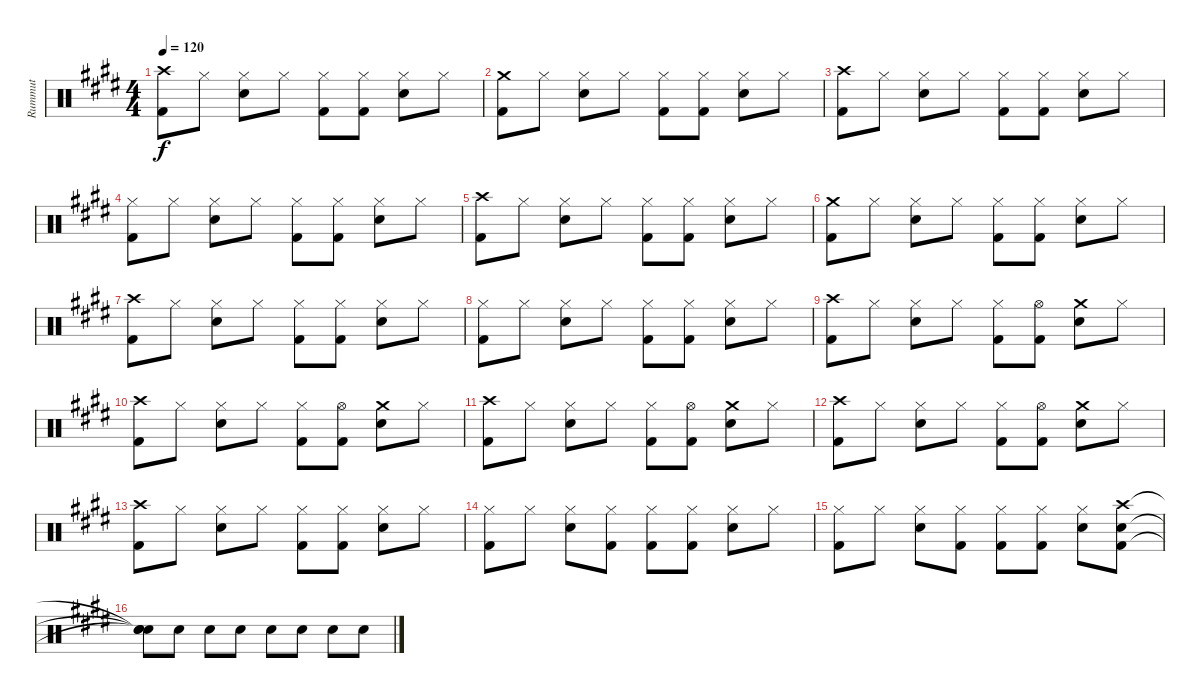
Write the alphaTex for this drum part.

\track ("Rummut" "Rummut") {instrument percussion}
\staff {score}
\articulation defaults
\ts (4 4)
\tempo 120
\clef neutral
\ks e
("Crash high (hit)" "Kick (hit) 2").8{dy f} "Hi-Hat (closed)".8 ("Hi-Hat (closed)" "Electric Snare (hit)").8 "Hi-Hat (closed)".8 ("Hi-Hat (closed)" "Kick (hit) 2").8 ("Hi-Hat (closed)" "Kick (hit) 2").8 ("Hi-Hat (closed)" "Electric Snare (hit)").8 "Hi-Hat (closed)".8 |
("Crash medium (hit)" "Kick (hit) 2").8 "Hi-Hat (closed)".8 ("Hi-Hat (closed)" "Electric Snare (hit)").8 "Hi-Hat (closed)".8 ("Hi-Hat (closed)" "Kick (hit) 2").8 ("Hi-Hat (closed)" "Kick (hit) 2").8 ("Hi-Hat (closed)" "Electric Snare (hit)").8 "Hi-Hat (closed)".8 |
("Crash high (hit)" "Kick (hit) 2").8 "Hi-Hat (closed)".8 ("Hi-Hat (closed)" "Electric Snare (hit)").8 "Hi-Hat (closed)".8 ("Hi-Hat (closed)" "Kick (hit) 2").8 ("Hi-Hat (closed)" "Kick (hit) 2").8 ("Hi-Hat (closed)" "Electric Snare (hit)").8 "Hi-Hat (closed)".8 |
("Hi-Hat (closed)" "Kick (hit) 2").8 "Hi-Hat (closed)".8 ("Hi-Hat (closed)" "Electric Snare (hit)").8 "Hi-Hat (closed)".8 ("Hi-Hat (closed)" "Kick (hit) 2").8 ("Hi-Hat (closed)" "Kick (hit) 2").8 ("Hi-Hat (closed)" "Electric Snare (hit)").8 "Hi-Hat (closed)".8 |
("Crash high (hit)" "Kick (hit) 2").8 "Hi-Hat (closed)".8 ("Hi-Hat (closed)" "Electric Snare (hit)").8 "Hi-Hat (closed)".8 ("Hi-Hat (closed)" "Kick (hit) 2").8 ("Hi-Hat (closed)" "Kick (hit) 2").8 ("Hi-Hat (closed)" "Electric Snare (hit)").8 "Hi-Hat (closed)".8 |
("Crash medium (hit)" "Kick (hit) 2").8 "Hi-Hat (closed)".8 ("Hi-Hat (closed)" "Electric Snare (hit)").8 "Hi-Hat (closed)".8 ("Hi-Hat (closed)" "Kick (hit) 2").8 ("Hi-Hat (closed)" "Kick (hit) 2").8 ("Hi-Hat (closed)" "Electric Snare (hit)").8 "Hi-Hat (closed)".8 |
("Crash high (hit)" "Kick (hit) 2").8 "Hi-Hat (closed)".8 ("Hi-Hat (closed)" "Electric Snare (hit)").8 "Hi-Hat (closed)".8 ("Hi-Hat (closed)" "Kick (hit) 2").8 ("Hi-Hat (closed)" "Kick (hit) 2").8 ("Hi-Hat (closed)" "Electric Snare (hit)").8 "Hi-Hat (closed)".8 |
("Hi-Hat (closed)" "Kick (hit) 2").8 "Hi-Hat (closed)".8 ("Hi-Hat (closed)" "Electric Snare (hit)").8 "Hi-Hat (closed)".8 ("Hi-Hat (closed)" "Kick (hit) 2").8 ("Hi-Hat (closed)" "Kick (hit) 2").8 ("Hi-Hat (closed)" "Electric Snare (hit)").8 "Hi-Hat (closed)".8 |
("Crash high (hit)" "Kick (hit) 2").8 "Hi-Hat (closed)".8 ("Hi-Hat (closed)" "Electric Snare (hit)").8 "Hi-Hat (closed)".8 ("Hi-Hat (closed)" "Kick (hit) 2").8 ("Hi-Hat (open)" "Kick (hit) 2").8 ("Crash medium (hit)" "Electric Snare (hit)").8 "Hi-Hat (closed)".8 |
("Crash high (hit)" "Kick (hit) 2").8 "Hi-Hat (closed)".8 ("Hi-Hat (closed)" "Electric Snare (hit)").8 "Hi-Hat (closed)".8 ("Hi-Hat (closed)" "Kick (hit) 2").8 ("Hi-Hat (open)" "Kick (hit) 2").8 ("Crash medium (hit)" "Electric Snare (hit)").8 "Hi-Hat (closed)".8 |
("Crash high (hit)" "Kick (hit) 2").8 "Hi-Hat (closed)".8 ("Hi-Hat (closed)" "Electric Snare (hit)").8 "Hi-Hat (closed)".8 ("Hi-Hat (closed)" "Kick (hit) 2").8 ("Hi-Hat (open)" "Kick (hit) 2").8 ("Crash medium (hit)" "Electric Snare (hit)").8 "Hi-Hat (closed)".8 |
("Crash high (hit)" "Kick (hit) 2").8 "Hi-Hat (closed)".8 ("Hi-Hat (closed)" "Electric Snare (hit)").8 "Hi-Hat (closed)".8 ("Hi-Hat (closed)" "Kick (hit) 2").8 ("Hi-Hat (open)" "Kick (hit) 2").8 ("Crash medium (hit)" "Electric Snare (hit)").8 "Hi-Hat (closed)".8 |
("Crash high (hit)" "Kick (hit) 2").8 "Hi-Hat (closed)".8 ("Hi-Hat (closed)" "Electric Snare (hit)").8 "Hi-Hat (closed)".8 ("Hi-Hat (closed)" "Kick (hit) 2").8 ("Hi-Hat (closed)" "Kick (hit) 2").8 ("Hi-Hat (closed)" "Electric Snare (hit)").8 "Hi-Hat (closed)".8 |
("Hi-Hat (closed)" "Kick (hit) 2").8 "Hi-Hat (closed)".8 ("Hi-Hat (closed)" "Electric Snare (hit)").8 ("Hi-Hat (closed)" "Kick (hit) 2").8 ("Hi-Hat (closed)" "Kick (hit) 2").8 ("Hi-Hat (closed)" "Kick (hit) 2").8 ("Hi-Hat (closed)" "Electric Snare (hit)").8 "Hi-Hat (closed)".8 |
("Hi-Hat (closed)" "Kick (hit) 2").8 "Hi-Hat (closed)".8 ("Hi-Hat (closed)" "Electric Snare (hit)").8 ("Hi-Hat (closed)" "Kick (hit) 2").8 ("Hi-Hat (closed)" "Kick (hit) 2").8 ("Hi-Hat (closed)" "Kick (hit) 2").8 ("Hi-Hat (closed)" "Electric Snare (hit)").8 ("Crash high (hit)" "Electric Snare (hit)" "Kick (hit) 2").8 |
("Snare (hit)"{t} "Snare (hit)"{t} "Snare (hit)"{t}).8 "Electric Snare (hit)".8 "Electric Snare (hit)".8 "Electric Snare (hit)".8 "Electric Snare (hit)".8 "Electric Snare (hit)".8 "Electric Snare (hit)".8 "Electric Snare (hit)".8
